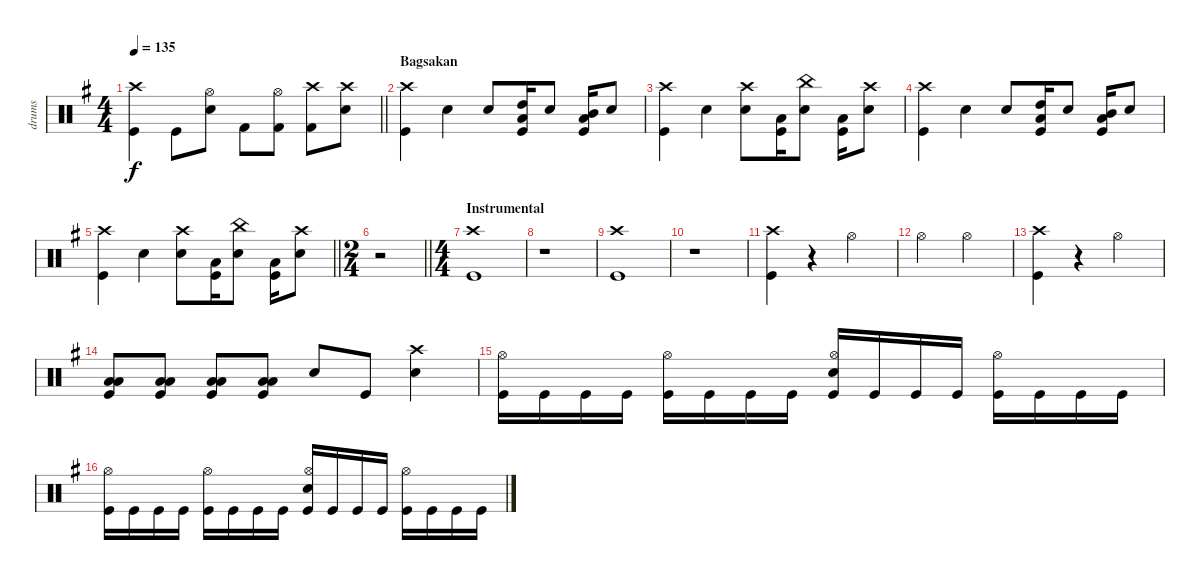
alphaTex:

\track ("drums" "drums") {instrument percussion}
\staff {score}
\articulation defaults
\ts (4 4)
\tempo 135
\clef neutral
\barLineRight lightlight
\ks eminor
("Crash high (hit)" "Kick (hit)").4{dy f} "Kick (hit)".8 ("Hi-Hat (open)" "Snare (hit) 2").8 "Kick (hit) 2".8 ("Hi-Hat (open)" "Kick (hit) 2").8 ("Crash high (hit)" "Kick (hit) 2").8 ("Crash high (hit)" "Snare (hit) 2").8 |
\section ("" "Bagsakan")
("Crash high (hit)" "Kick (hit)").4 "Snare (hit) 2".4 "Snare (hit) 2".8 ("High Tom (hit)" "Low Floor Tom (hit)" "Kick (hit)").16 "Snare (hit) 2".8 ("Mid Tom (hit)" "Low Floor Tom (hit)" "Kick (hit)").16 "Snare (hit) 2".8 |
("Crash high (hit)" "Kick (hit)").4 "Snare (hit) 2".4 ("Crash high (hit)" "Snare (hit) 2").8 ("Low Floor Tom (hit)" "Kick (hit)").16 ("China (hit)" "Snare (hit) 2").8 ("Low Floor Tom (hit)" "Kick (hit)").16 ("Crash high (hit)" "Snare (hit) 2").8 |
("Crash high (hit)" "Kick (hit)").4 "Snare (hit) 2".4 "Snare (hit) 2".8 ("High Tom (hit)" "Low Floor Tom (hit)" "Kick (hit)").16 "Snare (hit) 2".8 ("Mid Tom (hit)" "Low Floor Tom (hit)" "Kick (hit)").16 "Snare (hit) 2".8 |
\barLineRight lightlight
("Crash high (hit)" "Kick (hit)").4 "Snare (hit) 2".4 ("Crash high (hit)" "Snare (hit) 2").8 ("Low Floor Tom (hit)" "Kick (hit)").16 ("China (hit)" "Snare (hit) 2").8 ("Low Floor Tom (hit)" "Kick (hit)").16 ("Crash high (hit)" "Snare (hit) 2").8 |
\ts (2 4)
\barLineRight lightlight
r.2 |
\ts (4 4)
\section ("" "Instrumental")
("Crash high (hit)" "Kick (hit)").1 |
r.1 |
("Crash high (hit)" "Kick (hit)").1 |
r.1 |
("Crash high (hit)" "Kick (hit)").4 r.4 "Hi-Hat (open)".2 |
"Hi-Hat (open)".2 "Hi-Hat (open)".2 |
("Crash high (hit)" "Kick (hit)").4 r.4 "Hi-Hat (open)".2 |
("Low Tom (hit)" "Low Floor Tom (hit)" "Kick (hit)").8 ("Low Tom (hit)" "Low Floor Tom (hit)" "Kick (hit)").8 ("Low Tom (hit)" "Low Floor Tom (hit)" "Kick (hit)").8 ("Low Tom (hit)" "Low Floor Tom (hit)" "Kick (hit)").8 "Snare (hit) 2".8 "Kick (hit)".8 ("Crash high (hit)" "Snare (hit) 2").4 |
("Hi-Hat (open)" "Kick (hit)").16 "Kick (hit)".16 "Kick (hit)".16 "Kick (hit)".16 ("Hi-Hat (open)" "Kick (hit)").16 "Kick (hit)".16 "Kick (hit)".16 "Kick (hit)".16 ("Hi-Hat (open)" "Snare (hit) 2" "Kick (hit)").16 "Kick (hit)".16 "Kick (hit)".16 "Kick (hit)".16 ("Hi-Hat (open)" "Kick (hit)").16 "Kick (hit)".16 "Kick (hit)".16 "Kick (hit)".16 |
("Hi-Hat (open)" "Kick (hit)").16 "Kick (hit)".16 "Kick (hit)".16 "Kick (hit)".16 ("Hi-Hat (open)" "Kick (hit)").16 "Kick (hit)".16 "Kick (hit)".16 "Kick (hit)".16 ("Hi-Hat (open)" "Snare (hit) 2" "Kick (hit)").16 "Kick (hit)".16 "Kick (hit)".16 "Kick (hit)".16 ("Hi-Hat (open)" "Kick (hit)").16 "Kick (hit)".16 "Kick (hit)".16 "Kick (hit)".16
